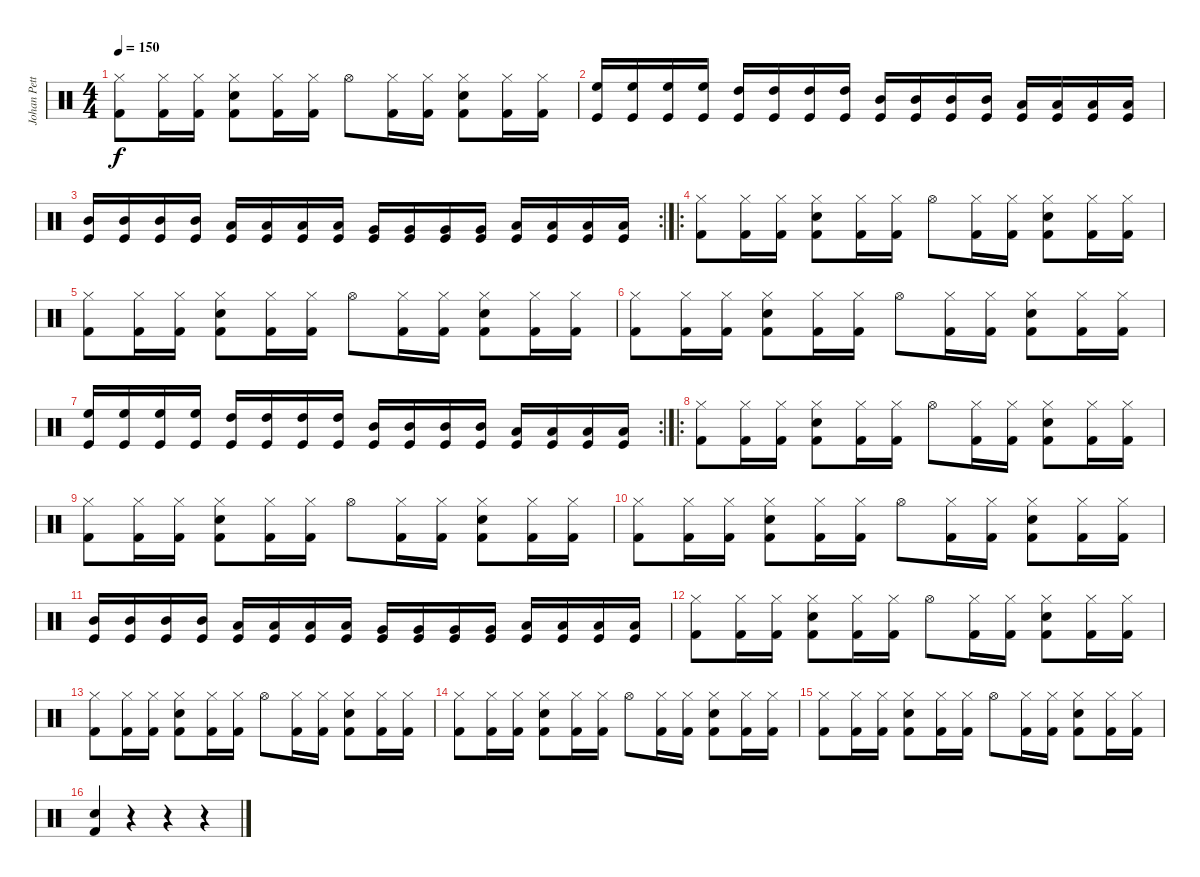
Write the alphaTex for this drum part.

\track ("Johan Petterson" "Johan Pett") {instrument percussion}
\staff {score}
\articulation defaults
\ts (4 4)
\tempo 150
\clef neutral
\ks c
("Hi-Hat (closed)" "Kick (hit) 2").8{dy f} ("Hi-Hat (closed)" "Kick (hit) 2").16 ("Hi-Hat (closed)" "Kick (hit) 2").16 ("Hi-Hat (closed)" "Snare (hit) 2" "Kick (hit) 2").8 ("Hi-Hat (closed)" "Kick (hit) 2").16 ("Hi-Hat (closed)" "Kick (hit) 2").16 "Hi-Hat (open)".8 ("Hi-Hat (closed)" "Kick (hit) 2").16 ("Hi-Hat (closed)" "Kick (hit) 2").16 ("Hi-Hat (closed)" "Snare (hit) 2" "Kick (hit) 2").8 ("Hi-Hat (closed)" "Kick (hit) 2").16 ("Hi-Hat (closed)" "Kick (hit) 2").16 |
("Kick (hit)" "High Floor Tom (hit)").16 ("Kick (hit)" "High Floor Tom (hit)").16 ("Kick (hit)" "High Floor Tom (hit)").16 ("Kick (hit)" "High Floor Tom (hit)").16 ("Kick (hit)" "High Tom (hit)").16 ("Kick (hit)" "High Tom (hit)").16 ("Kick (hit)" "High Tom (hit)").16 ("Kick (hit)" "High Tom (hit)").16 ("Kick (hit)" "Mid Tom (hit)").16 ("Kick (hit)" "Mid Tom (hit)").16 ("Kick (hit)" "Mid Tom (hit)").16 ("Kick (hit)" "Mid Tom (hit)").16 ("Kick (hit)" "Low Tom (hit)").16 ("Kick (hit)" "Low Tom (hit)").16 ("Kick (hit)" "Low Tom (hit)").16 ("Kick (hit)" "Low Tom (hit)").16 |
\rc 2
("Kick (hit)" "Mid Tom (hit)").16 ("Kick (hit)" "Mid Tom (hit)").16 ("Kick (hit)" "Mid Tom (hit)").16 ("Kick (hit)" "Mid Tom (hit)").16 ("Kick (hit)" "Low Tom (hit)").16 ("Kick (hit)" "Low Tom (hit)").16 ("Kick (hit)" "Low Tom (hit)").16 ("Kick (hit)" "Low Tom (hit)").16 ("Kick (hit)" "Very Low Tom (hit)").16 ("Kick (hit)" "Very Low Tom (hit)").16 ("Kick (hit)" "Very Low Tom (hit)").16 ("Kick (hit)" "Very Low Tom (hit)").16 ("Kick (hit)" "Low Floor Tom (hit)").16 ("Kick (hit)" "Low Floor Tom (hit)").16 ("Kick (hit)" "Low Floor Tom (hit)").16 ("Kick (hit)" "Low Floor Tom (hit)").16 |
\ro
("Hi-Hat (closed)" "Kick (hit) 2").8 ("Hi-Hat (closed)" "Kick (hit) 2").16 ("Hi-Hat (closed)" "Kick (hit) 2").16 ("Hi-Hat (closed)" "Snare (hit) 2" "Kick (hit) 2").8 ("Hi-Hat (closed)" "Kick (hit) 2").16 ("Hi-Hat (closed)" "Kick (hit) 2").16 "Hi-Hat (open)".8 ("Hi-Hat (closed)" "Kick (hit) 2").16 ("Hi-Hat (closed)" "Kick (hit) 2").16 ("Hi-Hat (closed)" "Snare (hit) 2" "Kick (hit) 2").8 ("Hi-Hat (closed)" "Kick (hit) 2").16 ("Hi-Hat (closed)" "Kick (hit) 2").16 |
("Hi-Hat (closed)" "Kick (hit) 2").8 ("Hi-Hat (closed)" "Kick (hit) 2").16 ("Hi-Hat (closed)" "Kick (hit) 2").16 ("Hi-Hat (closed)" "Snare (hit) 2" "Kick (hit) 2").8 ("Hi-Hat (closed)" "Kick (hit) 2").16 ("Hi-Hat (closed)" "Kick (hit) 2").16 "Hi-Hat (open)".8 ("Hi-Hat (closed)" "Kick (hit) 2").16 ("Hi-Hat (closed)" "Kick (hit) 2").16 ("Hi-Hat (closed)" "Snare (hit) 2" "Kick (hit) 2").8 ("Hi-Hat (closed)" "Kick (hit) 2").16 ("Hi-Hat (closed)" "Kick (hit) 2").16 |
("Hi-Hat (closed)" "Kick (hit) 2").8 ("Hi-Hat (closed)" "Kick (hit) 2").16 ("Hi-Hat (closed)" "Kick (hit) 2").16 ("Hi-Hat (closed)" "Snare (hit) 2" "Kick (hit) 2").8 ("Hi-Hat (closed)" "Kick (hit) 2").16 ("Hi-Hat (closed)" "Kick (hit) 2").16 "Hi-Hat (open)".8 ("Hi-Hat (closed)" "Kick (hit) 2").16 ("Hi-Hat (closed)" "Kick (hit) 2").16 ("Hi-Hat (closed)" "Snare (hit) 2" "Kick (hit) 2").8 ("Hi-Hat (closed)" "Kick (hit) 2").16 ("Hi-Hat (closed)" "Kick (hit) 2").16 |
\rc 2
("Kick (hit)" "High Floor Tom (hit)").16 ("Kick (hit)" "High Floor Tom (hit)").16 ("Kick (hit)" "High Floor Tom (hit)").16 ("Kick (hit)" "High Floor Tom (hit)").16 ("Kick (hit)" "High Tom (hit)").16 ("Kick (hit)" "High Tom (hit)").16 ("Kick (hit)" "High Tom (hit)").16 ("Kick (hit)" "High Tom (hit)").16 ("Kick (hit)" "Mid Tom (hit)").16 ("Kick (hit)" "Mid Tom (hit)").16 ("Kick (hit)" "Mid Tom (hit)").16 ("Kick (hit)" "Mid Tom (hit)").16 ("Kick (hit)" "Low Tom (hit)").16 ("Kick (hit)" "Low Tom (hit)").16 ("Kick (hit)" "Low Tom (hit)").16 ("Kick (hit)" "Low Tom (hit)").16 |
\ro
("Hi-Hat (closed)" "Kick (hit) 2").8 ("Hi-Hat (closed)" "Kick (hit) 2").16 ("Hi-Hat (closed)" "Kick (hit) 2").16 ("Hi-Hat (closed)" "Snare (hit) 2" "Kick (hit) 2").8 ("Hi-Hat (closed)" "Kick (hit) 2").16 ("Hi-Hat (closed)" "Kick (hit) 2").16 "Hi-Hat (open)".8 ("Hi-Hat (closed)" "Kick (hit) 2").16 ("Hi-Hat (closed)" "Kick (hit) 2").16 ("Hi-Hat (closed)" "Snare (hit) 2" "Kick (hit) 2").8 ("Hi-Hat (closed)" "Kick (hit) 2").16 ("Hi-Hat (closed)" "Kick (hit) 2").16 |
("Hi-Hat (closed)" "Kick (hit) 2").8 ("Hi-Hat (closed)" "Kick (hit) 2").16 ("Hi-Hat (closed)" "Kick (hit) 2").16 ("Hi-Hat (closed)" "Snare (hit) 2" "Kick (hit) 2").8 ("Hi-Hat (closed)" "Kick (hit) 2").16 ("Hi-Hat (closed)" "Kick (hit) 2").16 "Hi-Hat (open)".8 ("Hi-Hat (closed)" "Kick (hit) 2").16 ("Hi-Hat (closed)" "Kick (hit) 2").16 ("Hi-Hat (closed)" "Snare (hit) 2" "Kick (hit) 2").8 ("Hi-Hat (closed)" "Kick (hit) 2").16 ("Hi-Hat (closed)" "Kick (hit) 2").16 |
("Hi-Hat (closed)" "Kick (hit) 2").8 ("Hi-Hat (closed)" "Kick (hit) 2").16 ("Hi-Hat (closed)" "Kick (hit) 2").16 ("Hi-Hat (closed)" "Snare (hit) 2" "Kick (hit) 2").8 ("Hi-Hat (closed)" "Kick (hit) 2").16 ("Hi-Hat (closed)" "Kick (hit) 2").16 "Hi-Hat (open)".8 ("Hi-Hat (closed)" "Kick (hit) 2").16 ("Hi-Hat (closed)" "Kick (hit) 2").16 ("Hi-Hat (closed)" "Snare (hit) 2" "Kick (hit) 2").8 ("Hi-Hat (closed)" "Kick (hit) 2").16 ("Hi-Hat (closed)" "Kick (hit) 2").16 |
("Kick (hit)" "Mid Tom (hit)").16 ("Kick (hit)" "Mid Tom (hit)").16 ("Kick (hit)" "Mid Tom (hit)").16 ("Kick (hit)" "Mid Tom (hit)").16 ("Kick (hit)" "Low Tom (hit)").16 ("Kick (hit)" "Low Tom (hit)").16 ("Kick (hit)" "Low Tom (hit)").16 ("Kick (hit)" "Low Tom (hit)").16 ("Kick (hit)" "Very Low Tom (hit)").16 ("Kick (hit)" "Very Low Tom (hit)").16 ("Kick (hit)" "Very Low Tom (hit)").16 ("Kick (hit)" "Very Low Tom (hit)").16 ("Kick (hit)" "Low Floor Tom (hit)").16 ("Kick (hit)" "Low Floor Tom (hit)").16 ("Kick (hit)" "Low Floor Tom (hit)").16 ("Kick (hit)" "Low Floor Tom (hit)").16 |
("Hi-Hat (closed)" "Kick (hit) 2").8 ("Hi-Hat (closed)" "Kick (hit) 2").16 ("Hi-Hat (closed)" "Kick (hit) 2").16 ("Hi-Hat (closed)" "Snare (hit) 2" "Kick (hit) 2").8 ("Hi-Hat (closed)" "Kick (hit) 2").16 ("Hi-Hat (closed)" "Kick (hit) 2").16 "Hi-Hat (open)".8 ("Hi-Hat (closed)" "Kick (hit) 2").16 ("Hi-Hat (closed)" "Kick (hit) 2").16 ("Hi-Hat (closed)" "Snare (hit) 2" "Kick (hit) 2").8 ("Hi-Hat (closed)" "Kick (hit) 2").16 ("Hi-Hat (closed)" "Kick (hit) 2").16 |
("Hi-Hat (closed)" "Kick (hit) 2").8 ("Hi-Hat (closed)" "Kick (hit) 2").16 ("Hi-Hat (closed)" "Kick (hit) 2").16 ("Hi-Hat (closed)" "Snare (hit) 2" "Kick (hit) 2").8 ("Hi-Hat (closed)" "Kick (hit) 2").16 ("Hi-Hat (closed)" "Kick (hit) 2").16 "Hi-Hat (open)".8 ("Hi-Hat (closed)" "Kick (hit) 2").16 ("Hi-Hat (closed)" "Kick (hit) 2").16 ("Hi-Hat (closed)" "Snare (hit) 2" "Kick (hit) 2").8 ("Hi-Hat (closed)" "Kick (hit) 2").16 ("Hi-Hat (closed)" "Kick (hit) 2").16 |
("Hi-Hat (closed)" "Kick (hit) 2").8 ("Hi-Hat (closed)" "Kick (hit) 2").16 ("Hi-Hat (closed)" "Kick (hit) 2").16 ("Hi-Hat (closed)" "Snare (hit) 2" "Kick (hit) 2").8 ("Hi-Hat (closed)" "Kick (hit) 2").16 ("Hi-Hat (closed)" "Kick (hit) 2").16 "Hi-Hat (open)".8 ("Hi-Hat (closed)" "Kick (hit) 2").16 ("Hi-Hat (closed)" "Kick (hit) 2").16 ("Hi-Hat (closed)" "Snare (hit) 2" "Kick (hit) 2").8 ("Hi-Hat (closed)" "Kick (hit) 2").16 ("Hi-Hat (closed)" "Kick (hit) 2").16 |
("Hi-Hat (closed)" "Kick (hit) 2").8 ("Hi-Hat (closed)" "Kick (hit) 2").16 ("Hi-Hat (closed)" "Kick (hit) 2").16 ("Hi-Hat (closed)" "Snare (hit) 2" "Kick (hit) 2").8 ("Hi-Hat (closed)" "Kick (hit) 2").16 ("Hi-Hat (closed)" "Kick (hit) 2").16 "Hi-Hat (open)".8 ("Hi-Hat (closed)" "Kick (hit) 2").16 ("Hi-Hat (closed)" "Kick (hit) 2").16 ("Hi-Hat (closed)" "Snare (hit) 2" "Kick (hit) 2").8 ("Hi-Hat (closed)" "Kick (hit) 2").16 ("Hi-Hat (closed)" "Kick (hit) 2").16 |
("Snare (hit) 2" "Kick (hit) 2").4 r.4 r.4 r.4
